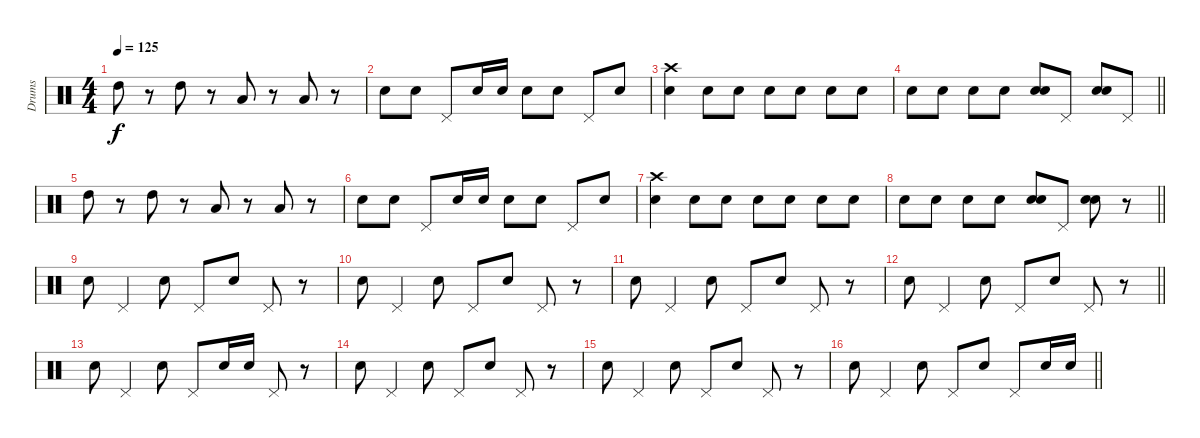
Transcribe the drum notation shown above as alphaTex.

\track ("Drums" "Drums") {instrument percussion}
\staff {score}
\articulation defaults
\ts (4 4)
\tempo 125
\clef neutral
\ks c "High Tom (hit)".8{dy f}
r.8 "High Tom (hit)".8 r.8 "Low Tom (hit)".8 r.8 "Low Tom (hit)".8 r.8 |
"Electric Snare (hit)".8 "Electric Snare (hit)".8 "Pedal Hi-Hat (hit)".8 "Electric Snare (hit)".16 "Electric Snare (hit)".16 "Electric Snare (hit)".8 "Electric Snare (hit)".8 "Pedal Hi-Hat (hit)".8 "Electric Snare (hit)".8 |
("Crash high (hit)" "Electric Snare (hit)").4 "Electric Snare (hit)".8 "Electric Snare (hit)".8 "Electric Snare (hit)".8 "Electric Snare (hit)".8 "Electric Snare (hit)".8 "Electric Snare (hit)".8 |
\barLineRight lightlight "Electric Snare (hit)".8 "Electric Snare (hit)".8 "Electric Snare (hit)".8 "Electric Snare (hit)".8
("Electric Snare (hit)" "Electric Snare (hit)").8 "Pedal Hi-Hat (hit)".8 ("Electric Snare (hit)" "Electric Snare (hit)").8 "Pedal Hi-Hat (hit)".8 |
"High Tom (hit)".8 r.8 "High Tom (hit)".8 r.8 "Low Tom (hit)".8 r.8 "Low Tom (hit)".8 r.8 |
"Electric Snare (hit)".8 "Electric Snare (hit)".8 "Pedal Hi-Hat (hit)".8 "Electric Snare (hit)".16 "Electric Snare (hit)".16 "Electric Snare (hit)".8 "Electric Snare (hit)".8 "Pedal Hi-Hat (hit)".8 "Electric Snare (hit)".8 |
("Crash high (hit)" "Electric Snare (hit)").4 "Electric Snare (hit)".8 "Electric Snare (hit)".8 "Electric Snare (hit)".8 "Electric Snare (hit)".8 "Electric Snare (hit)".8 "Electric Snare (hit)".8 |
\barLineRight lightlight "Electric Snare (hit)".8 "Electric Snare (hit)".8 "Electric Snare (hit)".8 "Electric Snare (hit)".8
("Electric Snare (hit)" "Electric Snare (hit)").8 "Pedal Hi-Hat (hit)".8 ("Electric Snare (hit)" "Electric Snare (hit)").8 r.8 |
"Electric Snare (hit)".8 "Pedal Hi-Hat (hit)".4 "Electric Snare (hit)".8 "Pedal Hi-Hat (hit)".8 "Electric Snare (hit)".8 "Pedal Hi-Hat (hit)".8 r.8 |
"Electric Snare (hit)".8 "Pedal Hi-Hat (hit)".4 "Electric Snare (hit)".8 "Pedal Hi-Hat (hit)".8 "Electric Snare (hit)".8 "Pedal Hi-Hat (hit)".8 r.8 |
"Electric Snare (hit)".8 "Pedal Hi-Hat (hit)".4 "Electric Snare (hit)".8 "Pedal Hi-Hat (hit)".8 "Electric Snare (hit)".8 "Pedal Hi-Hat (hit)".8 r.8 |
\barLineRight lightlight "Electric Snare (hit)".8 "Pedal Hi-Hat (hit)".4 "Electric Snare (hit)".8 "Pedal Hi-Hat (hit)".8 "Electric Snare (hit)".8 "Pedal Hi-Hat (hit)".8
r.8 |
"Electric Snare (hit)".8 "Pedal Hi-Hat (hit)".4 "Electric Snare (hit)".8 "Pedal Hi-Hat (hit)".8 "Electric Snare (hit)".16 "Electric Snare (hit)".16 "Pedal Hi-Hat (hit)".8 r.8 |
"Electric Snare (hit)".8 "Pedal Hi-Hat (hit)".4 "Electric Snare (hit)".8 "Pedal Hi-Hat (hit)".8 "Electric Snare (hit)".8 "Pedal Hi-Hat (hit)".8 r.8 |
"Electric Snare (hit)".8 "Pedal Hi-Hat (hit)".4 "Electric Snare (hit)".8 "Pedal Hi-Hat (hit)".8 "Electric Snare (hit)".8 "Pedal Hi-Hat (hit)".8 r.8 |
\barLineRight lightlight "Electric Snare (hit)".8 "Pedal Hi-Hat (hit)".4 "Electric Snare (hit)".8 "Pedal Hi-Hat (hit)".8 "Electric Snare (hit)".8 "Pedal Hi-Hat (hit)".8 "Electric Snare (hit)".16 "Electric Snare (hit)".16
